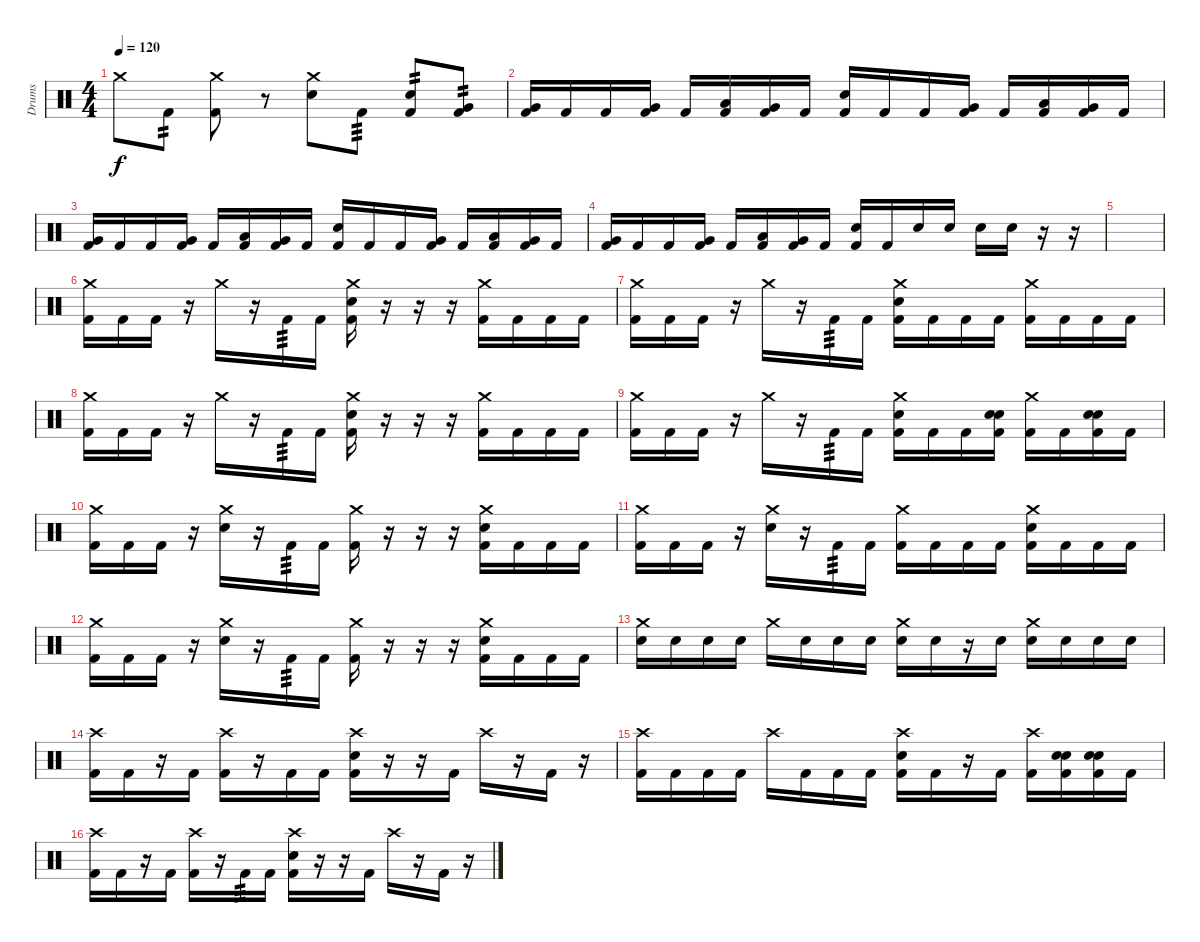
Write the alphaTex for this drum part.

\track ("Drums" "Drums") {instrument percussion}
\staff {score}
\articulation defaults
\ts (4 4)
\tempo 120
\clef neutral
\ks c "Crash medium (hit)".8{dy f} "Kick (hit) 2".8{tp 2}
("Crash medium (hit)" "Kick (hit) 2").8 r.8 ("Crash medium (hit)" "Electric Snare (hit)").8 "Kick (hit) 2".8{tp 3} ("Electric Snare (hit)" "Kick (hit) 2").8{tp 2} ("Very Low Tom (hit)" "Kick (hit) 2").8{tp 2} |
("Very Low Tom (hit)" "Kick (hit) 2").16 "Kick (hit) 2".16 "Kick (hit) 2".16 ("Very Low Tom (hit)" "Kick (hit) 2").16 "Kick (hit) 2".16 ("Low Tom (hit)" "Kick (hit) 2").16 ("Very Low Tom (hit)" "Kick (hit) 2").16 "Kick (hit) 2".16 ("Electric Snare (hit)" "Kick (hit) 2").16 "Kick (hit) 2".16 "Kick (hit) 2".16 ("Very Low Tom (hit)" "Kick (hit) 2").16 "Kick (hit) 2".16 ("Low Tom (hit)" "Kick (hit) 2").16 ("Very Low Tom (hit)" "Kick (hit) 2").16 "Kick (hit) 2".16 |
("Very Low Tom (hit)" "Kick (hit) 2").16 "Kick (hit) 2".16 "Kick (hit) 2".16 ("Very Low Tom (hit)" "Kick (hit) 2").16 "Kick (hit) 2".16 ("Low Tom (hit)" "Kick (hit) 2").16 ("Very Low Tom (hit)" "Kick (hit) 2").16 "Kick (hit) 2".16 ("Electric Snare (hit)" "Kick (hit) 2").16 "Kick (hit) 2".16 "Kick (hit) 2".16 ("Very Low Tom (hit)" "Kick (hit) 2").16 "Kick (hit) 2".16 ("Low Tom (hit)" "Kick (hit) 2").16 ("Very Low Tom (hit)" "Kick (hit) 2").16 "Kick (hit) 2".16 |
("Very Low Tom (hit)" "Kick (hit) 2").16 "Kick (hit) 2".16 "Kick (hit) 2".16 ("Very Low Tom (hit)" "Kick (hit) 2").16 "Kick (hit) 2".16 ("Low Tom (hit)" "Kick (hit) 2").16 ("Very Low Tom (hit)" "Kick (hit) 2").16 "Kick (hit) 2".16 ("Electric Snare (hit)" "Kick (hit) 2").16 "Kick (hit) 2".16 "Electric Snare (hit)".16 "Electric Snare (hit)".16 "Electric Snare (hit)".16 "Electric Snare (hit)".16 r.16 r.16 |
|
("Crash medium (hit)" "Kick (hit) 2").16 "Kick (hit) 2".16 "Kick (hit) 2".16 r.16 "Crash medium (hit)".16 r.16 "Kick (hit) 2".16{tp 3} "Kick (hit) 2".16 ("Crash medium (hit)" "Electric Snare (hit)" "Kick (hit) 2").16 r.16 r.16 r.16 ("Crash medium (hit)" "Kick (hit) 2").16 "Kick (hit) 2".16 "Kick (hit) 2".16 "Kick (hit) 2".16 |
("Crash medium (hit)" "Kick (hit) 2").16 "Kick (hit) 2".16 "Kick (hit) 2".16 r.16 "Crash medium (hit)".16 r.16 "Kick (hit) 2".16{tp 3} "Kick (hit) 2".16 ("Crash medium (hit)" "Electric Snare (hit)" "Kick (hit) 2").16 "Kick (hit) 2".16 "Kick (hit) 2".16 "Kick (hit) 2".16 ("Crash medium (hit)" "Kick (hit) 2").16 "Kick (hit) 2".16 "Kick (hit) 2".16 "Kick (hit) 2".16 |
("Crash medium (hit)" "Kick (hit) 2").16 "Kick (hit) 2".16 "Kick (hit) 2".16 r.16 "Crash medium (hit)".16 r.16 "Kick (hit) 2".16{tp 3} "Kick (hit) 2".16 ("Crash medium (hit)" "Electric Snare (hit)" "Kick (hit) 2").16 r.16 r.16 r.16 ("Crash medium (hit)" "Kick (hit) 2").16 "Kick (hit) 2".16 "Kick (hit) 2".16 "Kick (hit) 2".16 |
("Crash medium (hit)" "Kick (hit) 2").16 "Kick (hit) 2".16 "Kick (hit) 2".16 r.16 "Crash medium (hit)".16 r.16 "Kick (hit) 2".16{tp 3} "Kick (hit) 2".16 ("Crash medium (hit)" "Electric Snare (hit)" "Kick (hit) 2").16 "Kick (hit) 2".16 "Kick (hit) 2".16 ("Electric Snare (hit)" "Electric Snare (hit)" "Kick (hit) 2").16 ("Crash medium (hit)" "Kick (hit) 2").16 "Kick (hit) 2".16 ("Electric Snare (hit)" "Electric Snare (hit)" "Kick (hit) 2").16 "Kick (hit) 2".16 |
("Crash medium (hit)" "Kick (hit) 2").16 "Kick (hit) 2".16 "Kick (hit) 2".16 r.16 ("Crash medium (hit)" "Electric Snare (hit)").16 r.16 "Kick (hit) 2".16{tp 3} "Kick (hit) 2".16 ("Crash medium (hit)" "Kick (hit) 2").16 r.16 r.16 r.16 ("Crash medium (hit)" "Electric Snare (hit)" "Kick (hit) 2").16 "Kick (hit) 2".16 "Kick (hit) 2".16 "Kick (hit) 2".16 |
("Crash medium (hit)" "Kick (hit) 2").16 "Kick (hit) 2".16 "Kick (hit) 2".16 r.16 ("Crash medium (hit)" "Electric Snare (hit)").16 r.16 "Kick (hit) 2".16{tp 3} "Kick (hit) 2".16 ("Crash medium (hit)" "Kick (hit) 2").16 "Kick (hit) 2".16 "Kick (hit) 2".16 "Kick (hit) 2".16 ("Crash medium (hit)" "Electric Snare (hit)" "Kick (hit) 2").16 "Kick (hit) 2".16 "Kick (hit) 2".16 "Kick (hit) 2".16 |
("Crash medium (hit)" "Kick (hit) 2").16 "Kick (hit) 2".16 "Kick (hit) 2".16 r.16 ("Crash medium (hit)" "Electric Snare (hit)").16 r.16 "Kick (hit) 2".16{tp 3} "Kick (hit) 2".16 ("Crash medium (hit)" "Kick (hit) 2").16 r.16 r.16 r.16 ("Crash medium (hit)" "Electric Snare (hit)" "Kick (hit) 2").16 "Kick (hit) 2".16 "Kick (hit) 2".16 "Kick (hit) 2".16 |
("Crash medium (hit)" "Electric Snare (hit)").16 "Electric Snare (hit)".16 "Electric Snare (hit)".16 "Electric Snare (hit)".16 "Crash medium (hit)".16 "Electric Snare (hit)".16 "Electric Snare (hit)".16 "Electric Snare (hit)".16 ("Crash medium (hit)" "Electric Snare (hit)").16 "Electric Snare (hit)".16 r.16 "Electric Snare (hit)".16 ("Crash medium (hit)" "Electric Snare (hit)").16 "Electric Snare (hit)".16 "Electric Snare (hit)".16 "Electric Snare (hit)".16 |
("Crash high (hit)" "Kick (hit) 2").16 "Kick (hit) 2".16 r.16 "Kick (hit) 2".16 ("Crash high (hit)" "Kick (hit) 2").16 r.16 "Kick (hit) 2".16 "Kick (hit) 2".16 ("Crash high (hit)" "Electric Snare (hit)" "Kick (hit) 2").16 r.16 r.16 "Kick (hit) 2".16 "Crash high (hit)".16 r.16 "Kick (hit) 2".16 r.16 |
("Crash high (hit)" "Kick (hit) 2").16 "Kick (hit) 2".16 "Kick (hit) 2".16 "Kick (hit) 2".16 "Crash high (hit)".16 "Kick (hit) 2".16 "Kick (hit) 2".16 "Kick (hit) 2".16 ("Crash high (hit)" "Electric Snare (hit)" "Kick (hit) 2").16 "Kick (hit) 2".16 r.16 "Kick (hit) 2".16 ("Crash high (hit)" "Kick (hit) 2").16 ("Electric Snare (hit)" "Electric Snare (hit)" "Kick (hit) 2").16 ("Electric Snare (hit)" "Electric Snare (hit)" "Kick (hit) 2").16 "Kick (hit) 2".16 |
("Crash high (hit)" "Kick (hit) 2").16 "Kick (hit) 2".16 r.16 "Kick (hit) 2".16 ("Crash high (hit)" "Kick (hit) 2").16 r.16 "Kick (hit) 2".16{tp 3} "Kick (hit) 2".16 ("Crash high (hit)" "Electric Snare (hit)" "Kick (hit) 2").16 r.16 r.16 "Kick (hit) 2".16 "Crash high (hit)".16 r.16 "Kick (hit) 2".16 r.16
